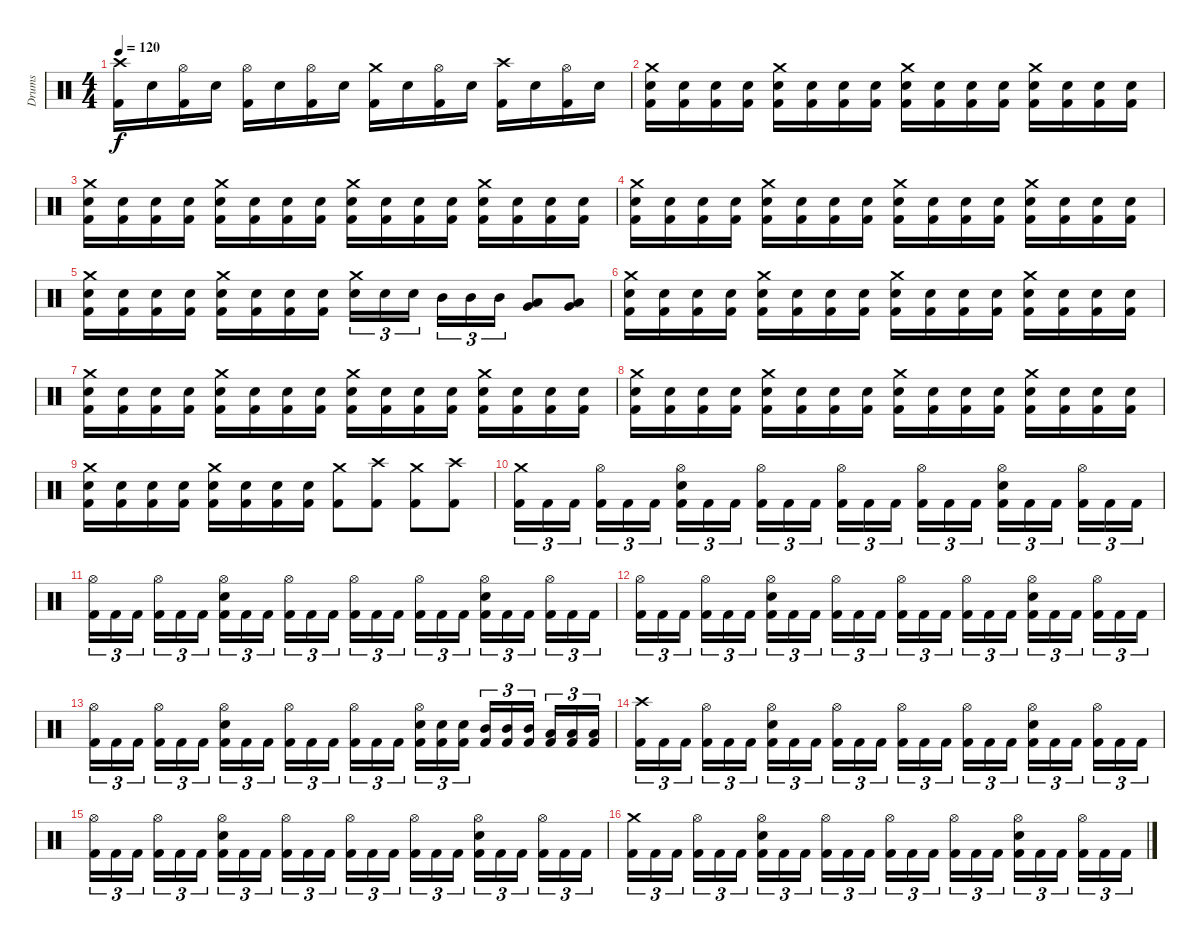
\track ("Drums" "Drums") {instrument percussion}
\staff {score}
\articulation defaults
\ts (4 4)
\tempo 120
\clef neutral
\ks c
("Kick (hit) 2" "Crash high (hit)").16{dy f} "Electric Snare (hit)".16 ("Kick (hit) 2" "Hi-Hat (open)").16 "Electric Snare (hit)".16 ("Kick (hit) 2" "Hi-Hat (open)").16 "Electric Snare (hit)".16 ("Kick (hit) 2" "Hi-Hat (open)").16 "Electric Snare (hit)".16 ("Kick (hit) 2" "Crash medium (hit)").16 "Electric Snare (hit)".16 ("Kick (hit) 2" "Hi-Hat (open)").16 "Electric Snare (hit)".16 ("Kick (hit) 2" "Crash high (hit)").16 "Electric Snare (hit)".16 ("Kick (hit) 2" "Hi-Hat (open)").16 "Electric Snare (hit)".16 |
("Kick (hit) 2" "Electric Snare (hit)" "Crash medium (hit)").16 ("Kick (hit) 2" "Electric Snare (hit)").16 ("Kick (hit) 2" "Electric Snare (hit)").16 ("Kick (hit) 2" "Electric Snare (hit)").16 ("Kick (hit) 2" "Electric Snare (hit)" "Crash medium (hit)").16 ("Kick (hit) 2" "Electric Snare (hit)").16 ("Kick (hit) 2" "Electric Snare (hit)").16 ("Kick (hit) 2" "Electric Snare (hit)").16 ("Kick (hit) 2" "Electric Snare (hit)" "Crash medium (hit)").16 ("Kick (hit) 2" "Electric Snare (hit)").16 ("Kick (hit) 2" "Electric Snare (hit)").16 ("Kick (hit) 2" "Electric Snare (hit)").16 ("Kick (hit) 2" "Electric Snare (hit)" "Crash medium (hit)").16 ("Kick (hit) 2" "Electric Snare (hit)").16 ("Kick (hit) 2" "Electric Snare (hit)").16 ("Kick (hit) 2" "Electric Snare (hit)").16 |
("Kick (hit) 2" "Electric Snare (hit)" "Crash medium (hit)").16 ("Kick (hit) 2" "Electric Snare (hit)").16 ("Kick (hit) 2" "Electric Snare (hit)").16 ("Kick (hit) 2" "Electric Snare (hit)").16 ("Kick (hit) 2" "Electric Snare (hit)" "Crash medium (hit)").16 ("Kick (hit) 2" "Electric Snare (hit)").16 ("Kick (hit) 2" "Electric Snare (hit)").16 ("Kick (hit) 2" "Electric Snare (hit)").16 ("Kick (hit) 2" "Electric Snare (hit)" "Crash medium (hit)").16 ("Kick (hit) 2" "Electric Snare (hit)").16 ("Kick (hit) 2" "Electric Snare (hit)").16 ("Kick (hit) 2" "Electric Snare (hit)").16 ("Kick (hit) 2" "Electric Snare (hit)" "Crash medium (hit)").16 ("Kick (hit) 2" "Electric Snare (hit)").16 ("Kick (hit) 2" "Electric Snare (hit)").16 ("Kick (hit) 2" "Electric Snare (hit)").16 |
("Kick (hit) 2" "Electric Snare (hit)" "Crash medium (hit)").16 ("Kick (hit) 2" "Electric Snare (hit)").16 ("Kick (hit) 2" "Electric Snare (hit)").16 ("Kick (hit) 2" "Electric Snare (hit)").16 ("Kick (hit) 2" "Electric Snare (hit)" "Crash medium (hit)").16 ("Kick (hit) 2" "Electric Snare (hit)").16 ("Kick (hit) 2" "Electric Snare (hit)").16 ("Kick (hit) 2" "Electric Snare (hit)").16 ("Kick (hit) 2" "Electric Snare (hit)" "Crash medium (hit)").16 ("Kick (hit) 2" "Electric Snare (hit)").16 ("Kick (hit) 2" "Electric Snare (hit)").16 ("Kick (hit) 2" "Electric Snare (hit)").16 ("Kick (hit) 2" "Electric Snare (hit)" "Crash medium (hit)").16 ("Kick (hit) 2" "Electric Snare (hit)").16 ("Kick (hit) 2" "Electric Snare (hit)").16 ("Kick (hit) 2" "Electric Snare (hit)").16 |
("Kick (hit) 2" "Electric Snare (hit)" "Crash medium (hit)").16 ("Kick (hit) 2" "Electric Snare (hit)").16 ("Kick (hit) 2" "Electric Snare (hit)").16 ("Kick (hit) 2" "Electric Snare (hit)").16 ("Kick (hit) 2" "Electric Snare (hit)" "Crash medium (hit)").16 ("Kick (hit) 2" "Electric Snare (hit)").16 ("Kick (hit) 2" "Electric Snare (hit)").16 ("Kick (hit) 2" "Electric Snare (hit)").16 ("Electric Snare (hit)" "Crash medium (hit)").16{tu (3 2)} "Electric Snare (hit)".16{tu (3 2)} "Electric Snare (hit)".16{tu (3 2)} "Mid Tom (hit)".16{tu (3 2)} "Mid Tom (hit)".16{tu (3 2)} "Mid Tom (hit)".16{tu (3 2)} ("Low Tom (hit)" "Very Low Tom (hit)").8 ("Low Tom (hit)" "Very Low Tom (hit)").8 |
("Kick (hit) 2" "Electric Snare (hit)" "Crash medium (hit)").16 ("Kick (hit) 2" "Electric Snare (hit)").16 ("Kick (hit) 2" "Electric Snare (hit)").16 ("Kick (hit) 2" "Electric Snare (hit)").16 ("Kick (hit) 2" "Electric Snare (hit)" "Crash medium (hit)").16 ("Kick (hit) 2" "Electric Snare (hit)").16 ("Kick (hit) 2" "Electric Snare (hit)").16 ("Kick (hit) 2" "Electric Snare (hit)").16 ("Kick (hit) 2" "Electric Snare (hit)" "Crash medium (hit)").16 ("Kick (hit) 2" "Electric Snare (hit)").16 ("Kick (hit) 2" "Electric Snare (hit)").16 ("Kick (hit) 2" "Electric Snare (hit)").16 ("Kick (hit) 2" "Electric Snare (hit)" "Crash medium (hit)").16 ("Kick (hit) 2" "Electric Snare (hit)").16 ("Kick (hit) 2" "Electric Snare (hit)").16 ("Kick (hit) 2" "Electric Snare (hit)").16 |
("Kick (hit) 2" "Electric Snare (hit)" "Crash medium (hit)").16 ("Kick (hit) 2" "Electric Snare (hit)").16 ("Kick (hit) 2" "Electric Snare (hit)").16 ("Kick (hit) 2" "Electric Snare (hit)").16 ("Kick (hit) 2" "Electric Snare (hit)" "Crash medium (hit)").16 ("Kick (hit) 2" "Electric Snare (hit)").16 ("Kick (hit) 2" "Electric Snare (hit)").16 ("Kick (hit) 2" "Electric Snare (hit)").16 ("Kick (hit) 2" "Electric Snare (hit)" "Crash medium (hit)").16 ("Kick (hit) 2" "Electric Snare (hit)").16 ("Kick (hit) 2" "Electric Snare (hit)").16 ("Kick (hit) 2" "Electric Snare (hit)").16 ("Kick (hit) 2" "Electric Snare (hit)" "Crash medium (hit)").16 ("Kick (hit) 2" "Electric Snare (hit)").16 ("Kick (hit) 2" "Electric Snare (hit)").16 ("Kick (hit) 2" "Electric Snare (hit)").16 |
("Kick (hit) 2" "Electric Snare (hit)" "Crash medium (hit)").16 ("Kick (hit) 2" "Electric Snare (hit)").16 ("Kick (hit) 2" "Electric Snare (hit)").16 ("Kick (hit) 2" "Electric Snare (hit)").16 ("Kick (hit) 2" "Electric Snare (hit)" "Crash medium (hit)").16 ("Kick (hit) 2" "Electric Snare (hit)").16 ("Kick (hit) 2" "Electric Snare (hit)").16 ("Kick (hit) 2" "Electric Snare (hit)").16 ("Kick (hit) 2" "Electric Snare (hit)" "Crash medium (hit)").16 ("Kick (hit) 2" "Electric Snare (hit)").16 ("Kick (hit) 2" "Electric Snare (hit)").16 ("Kick (hit) 2" "Electric Snare (hit)").16 ("Kick (hit) 2" "Electric Snare (hit)" "Crash medium (hit)").16 ("Kick (hit) 2" "Electric Snare (hit)").16 ("Kick (hit) 2" "Electric Snare (hit)").16 ("Kick (hit) 2" "Electric Snare (hit)").16 |
("Kick (hit) 2" "Electric Snare (hit)" "Crash medium (hit)").16 ("Kick (hit) 2" "Electric Snare (hit)").16 ("Kick (hit) 2" "Electric Snare (hit)").16 ("Kick (hit) 2" "Electric Snare (hit)").16 ("Kick (hit) 2" "Electric Snare (hit)" "Crash medium (hit)").16 ("Kick (hit) 2" "Electric Snare (hit)").16 ("Kick (hit) 2" "Electric Snare (hit)").16 ("Kick (hit) 2" "Electric Snare (hit)").16 ("Kick (hit) 2" "Crash medium (hit)").8 ("Kick (hit) 2" "Crash high (hit)").8 ("Kick (hit) 2" "Crash medium (hit)").8 ("Kick (hit) 2" "Crash high (hit)").8 |
("Kick (hit) 2" "Crash medium (hit)").16{tu (3 2)} "Kick (hit) 2".16{tu (3 2)} "Kick (hit) 2".16{tu (3 2)} ("Kick (hit) 2" "Hi-Hat (open)").16{tu (3 2)} "Kick (hit) 2".16{tu (3 2)} "Kick (hit) 2".16{tu (3 2)} ("Kick (hit) 2" "Electric Snare (hit)" "Hi-Hat (open)").16{tu (3 2)} "Kick (hit) 2".16{tu (3 2)} "Kick (hit) 2".16{tu (3 2)} ("Kick (hit) 2" "Hi-Hat (open)").16{tu (3 2)} "Kick (hit) 2".16{tu (3 2)} "Kick (hit) 2".16{tu (3 2)} ("Kick (hit) 2" "Hi-Hat (open)").16{tu (3 2)} "Kick (hit) 2".16{tu (3 2)} "Kick (hit) 2".16{tu (3 2)} ("Kick (hit) 2" "Hi-Hat (open)").16{tu (3 2)} "Kick (hit) 2".16{tu (3 2)} "Kick (hit) 2".16{tu (3 2)} ("Kick (hit) 2" "Electric Snare (hit)" "Hi-Hat (open)").16{tu (3 2)} "Kick (hit) 2".16{tu (3 2)} "Kick (hit) 2".16{tu (3 2)} ("Kick (hit) 2" "Hi-Hat (open)").16{tu (3 2)} "Kick (hit) 2".16{tu (3 2)} "Kick (hit) 2".16{tu (3 2)} |
("Kick (hit) 2" "Hi-Hat (open)").16{tu (3 2)} "Kick (hit) 2".16{tu (3 2)} "Kick (hit) 2".16{tu (3 2)} ("Kick (hit) 2" "Hi-Hat (open)").16{tu (3 2)} "Kick (hit) 2".16{tu (3 2)} "Kick (hit) 2".16{tu (3 2)} ("Kick (hit) 2" "Electric Snare (hit)" "Hi-Hat (open)").16{tu (3 2)} "Kick (hit) 2".16{tu (3 2)} "Kick (hit) 2".16{tu (3 2)} ("Kick (hit) 2" "Hi-Hat (open)").16{tu (3 2)} "Kick (hit) 2".16{tu (3 2)} "Kick (hit) 2".16{tu (3 2)} ("Kick (hit) 2" "Hi-Hat (open)").16{tu (3 2)} "Kick (hit) 2".16{tu (3 2)} "Kick (hit) 2".16{tu (3 2)} ("Kick (hit) 2" "Hi-Hat (open)").16{tu (3 2)} "Kick (hit) 2".16{tu (3 2)} "Kick (hit) 2".16{tu (3 2)} ("Kick (hit) 2" "Electric Snare (hit)" "Hi-Hat (open)").16{tu (3 2)} "Kick (hit) 2".16{tu (3 2)} "Kick (hit) 2".16{tu (3 2)} ("Kick (hit) 2" "Hi-Hat (open)").16{tu (3 2)} "Kick (hit) 2".16{tu (3 2)} "Kick (hit) 2".16{tu (3 2)} |
("Kick (hit) 2" "Hi-Hat (open)").16{tu (3 2)} "Kick (hit) 2".16{tu (3 2)} "Kick (hit) 2".16{tu (3 2)} ("Kick (hit) 2" "Hi-Hat (open)").16{tu (3 2)} "Kick (hit) 2".16{tu (3 2)} "Kick (hit) 2".16{tu (3 2)} ("Kick (hit) 2" "Electric Snare (hit)" "Hi-Hat (open)").16{tu (3 2)} "Kick (hit) 2".16{tu (3 2)} "Kick (hit) 2".16{tu (3 2)} ("Kick (hit) 2" "Hi-Hat (open)").16{tu (3 2)} "Kick (hit) 2".16{tu (3 2)} "Kick (hit) 2".16{tu (3 2)} ("Kick (hit) 2" "Hi-Hat (open)").16{tu (3 2)} "Kick (hit) 2".16{tu (3 2)} "Kick (hit) 2".16{tu (3 2)} ("Kick (hit) 2" "Hi-Hat (open)").16{tu (3 2)} "Kick (hit) 2".16{tu (3 2)} "Kick (hit) 2".16{tu (3 2)} ("Kick (hit) 2" "Electric Snare (hit)" "Hi-Hat (open)").16{tu (3 2)} "Kick (hit) 2".16{tu (3 2)} "Kick (hit) 2".16{tu (3 2)} ("Kick (hit) 2" "Hi-Hat (open)").16{tu (3 2)} "Kick (hit) 2".16{tu (3 2)} "Kick (hit) 2".16{tu (3 2)} |
("Kick (hit) 2" "Hi-Hat (open)").16{tu (3 2)} "Kick (hit) 2".16{tu (3 2)} "Kick (hit) 2".16{tu (3 2)} ("Kick (hit) 2" "Hi-Hat (open)").16{tu (3 2)} "Kick (hit) 2".16{tu (3 2)} "Kick (hit) 2".16{tu (3 2)} ("Kick (hit) 2" "Electric Snare (hit)" "Hi-Hat (open)").16{tu (3 2)} "Kick (hit) 2".16{tu (3 2)} "Kick (hit) 2".16{tu (3 2)} ("Kick (hit) 2" "Hi-Hat (open)").16{tu (3 2)} "Kick (hit) 2".16{tu (3 2)} "Kick (hit) 2".16{tu (3 2)} ("Kick (hit) 2" "Hi-Hat (open)").16{tu (3 2)} "Kick (hit) 2".16{tu (3 2)} "Kick (hit) 2".16{tu (3 2)} ("Kick (hit) 2" "Electric Snare (hit)" "Hi-Hat (open)").16{tu (3 2)} ("Kick (hit) 2" "Electric Snare (hit)").16{tu (3 2)} ("Kick (hit) 2" "Electric Snare (hit)").16{tu (3 2)} ("Kick (hit) 2" "Mid Tom (hit)").16{tu (3 2)} ("Kick (hit) 2" "Mid Tom (hit)").16{tu (3 2)} ("Kick (hit) 2" "Mid Tom (hit)").16{tu (3 2)} ("Kick (hit) 2" "Low Tom (hit)").16{tu (3 2)} ("Kick (hit) 2" "Low Tom (hit)").16{tu (3 2)} ("Kick (hit) 2" "Low Tom (hit)").16{tu (3 2)} |
("Kick (hit) 2" "Crash high (hit)").16{tu (3 2)} "Kick (hit) 2".16{tu (3 2)} "Kick (hit) 2".16{tu (3 2)} ("Kick (hit) 2" "Hi-Hat (open)").16{tu (3 2)} "Kick (hit) 2".16{tu (3 2)} "Kick (hit) 2".16{tu (3 2)} ("Kick (hit) 2" "Electric Snare (hit)" "Hi-Hat (open)").16{tu (3 2)} "Kick (hit) 2".16{tu (3 2)} "Kick (hit) 2".16{tu (3 2)} ("Kick (hit) 2" "Hi-Hat (open)").16{tu (3 2)} "Kick (hit) 2".16{tu (3 2)} "Kick (hit) 2".16{tu (3 2)} ("Kick (hit) 2" "Hi-Hat (open)").16{tu (3 2)} "Kick (hit) 2".16{tu (3 2)} "Kick (hit) 2".16{tu (3 2)} ("Kick (hit) 2" "Hi-Hat (open)").16{tu (3 2)} "Kick (hit) 2".16{tu (3 2)} "Kick (hit) 2".16{tu (3 2)} ("Kick (hit) 2" "Electric Snare (hit)" "Hi-Hat (open)").16{tu (3 2)} "Kick (hit) 2".16{tu (3 2)} "Kick (hit) 2".16{tu (3 2)} ("Kick (hit) 2" "Hi-Hat (open)").16{tu (3 2)} "Kick (hit) 2".16{tu (3 2)} "Kick (hit) 2".16{tu (3 2)} |
("Kick (hit) 2" "Hi-Hat (open)").16{tu (3 2)} "Kick (hit) 2".16{tu (3 2)} "Kick (hit) 2".16{tu (3 2)} ("Kick (hit) 2" "Hi-Hat (open)").16{tu (3 2)} "Kick (hit) 2".16{tu (3 2)} "Kick (hit) 2".16{tu (3 2)} ("Kick (hit) 2" "Electric Snare (hit)" "Hi-Hat (open)").16{tu (3 2)} "Kick (hit) 2".16{tu (3 2)} "Kick (hit) 2".16{tu (3 2)} ("Kick (hit) 2" "Hi-Hat (open)").16{tu (3 2)} "Kick (hit) 2".16{tu (3 2)} "Kick (hit) 2".16{tu (3 2)} ("Kick (hit) 2" "Hi-Hat (open)").16{tu (3 2)} "Kick (hit) 2".16{tu (3 2)} "Kick (hit) 2".16{tu (3 2)} ("Kick (hit) 2" "Hi-Hat (open)").16{tu (3 2)} "Kick (hit) 2".16{tu (3 2)} "Kick (hit) 2".16{tu (3 2)} ("Kick (hit) 2" "Electric Snare (hit)" "Hi-Hat (open)").16{tu (3 2)} "Kick (hit) 2".16{tu (3 2)} "Kick (hit) 2".16{tu (3 2)} ("Kick (hit) 2" "Hi-Hat (open)").16{tu (3 2)} "Kick (hit) 2".16{tu (3 2)} "Kick (hit) 2".16{tu (3 2)} |
("Kick (hit) 2" "Crash medium (hit)").16{tu (3 2)} "Kick (hit) 2".16{tu (3 2)} "Kick (hit) 2".16{tu (3 2)} ("Kick (hit) 2" "Hi-Hat (open)").16{tu (3 2)} "Kick (hit) 2".16{tu (3 2)} "Kick (hit) 2".16{tu (3 2)} ("Kick (hit) 2" "Electric Snare (hit)" "Hi-Hat (open)").16{tu (3 2)} "Kick (hit) 2".16{tu (3 2)} "Kick (hit) 2".16{tu (3 2)} ("Kick (hit) 2" "Hi-Hat (open)").16{tu (3 2)} "Kick (hit) 2".16{tu (3 2)} "Kick (hit) 2".16{tu (3 2)} ("Kick (hit) 2" "Hi-Hat (open)").16{tu (3 2)} "Kick (hit) 2".16{tu (3 2)} "Kick (hit) 2".16{tu (3 2)} ("Kick (hit) 2" "Hi-Hat (open)").16{tu (3 2)} "Kick (hit) 2".16{tu (3 2)} "Kick (hit) 2".16{tu (3 2)} ("Kick (hit) 2" "Electric Snare (hit)" "Hi-Hat (open)").16{tu (3 2)} "Kick (hit) 2".16{tu (3 2)} "Kick (hit) 2".16{tu (3 2)} ("Kick (hit) 2" "Hi-Hat (open)").16{tu (3 2)} "Kick (hit) 2".16{tu (3 2)} "Kick (hit) 2".16{tu (3 2)}
